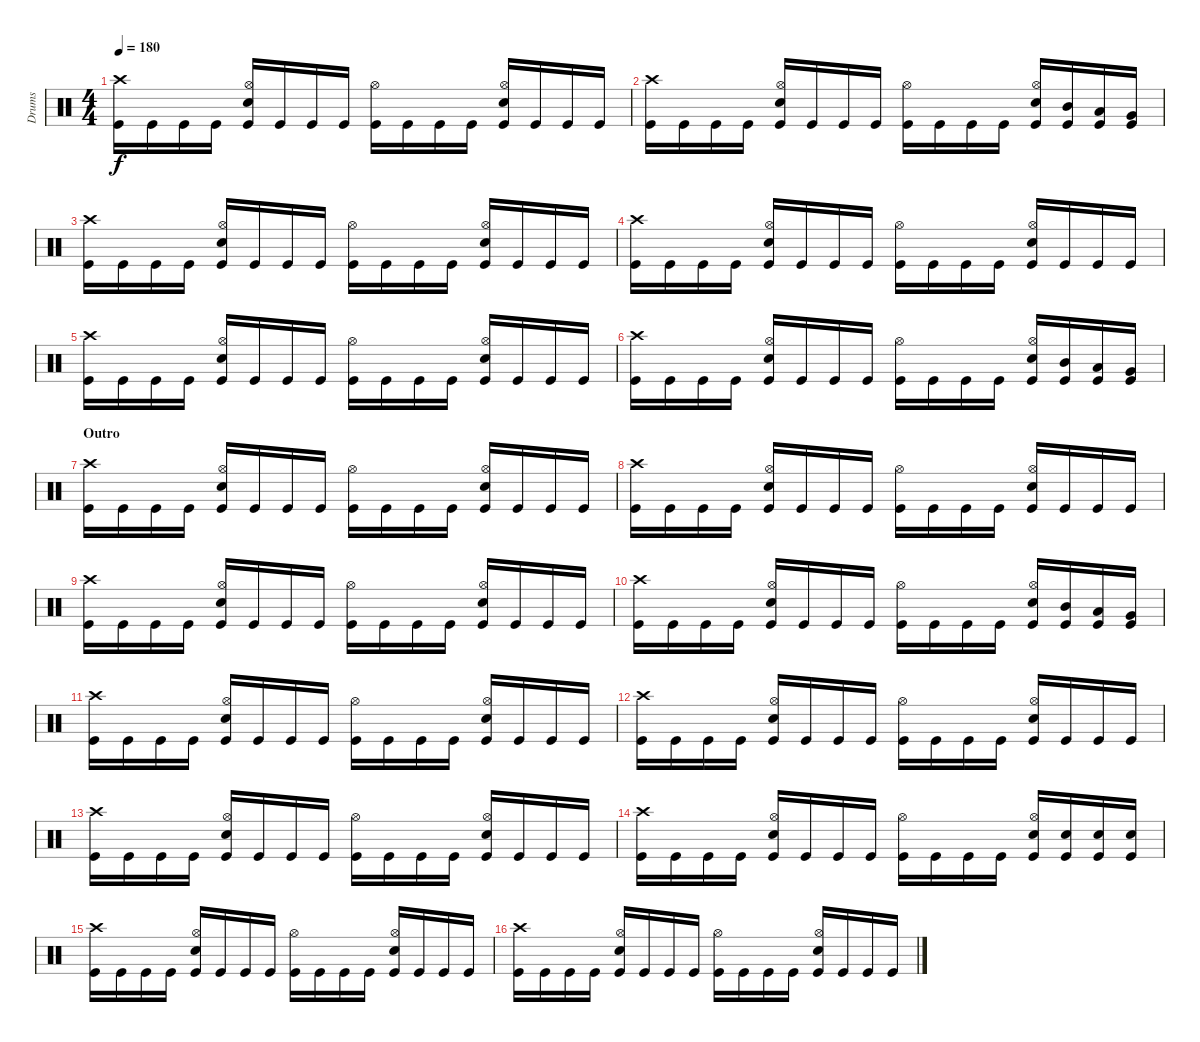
\track ("Drums" "Drums") {instrument percussion}
\staff {score}
\articulation defaults
\ts (4 4)
\tempo 180
\clef neutral
\ks c
("Crash high (hit)" "Kick (hit)").16{dy f} "Kick (hit)".16 "Kick (hit)".16 "Kick (hit)".16 ("Hi-Hat (open)" "Snare (hit) 2" "Kick (hit)").16 "Kick (hit)".16 "Kick (hit)".16 "Kick (hit)".16 ("Hi-Hat (open)" "Kick (hit)").16 "Kick (hit)".16 "Kick (hit)".16 "Kick (hit)".16 ("Hi-Hat (open)" "Snare (hit) 2" "Kick (hit)").16 "Kick (hit)".16 "Kick (hit)".16 "Kick (hit)".16 |
("Crash high (hit)" "Kick (hit)").16 "Kick (hit)".16 "Kick (hit)".16 "Kick (hit)".16 ("Hi-Hat (open)" "Snare (hit) 2" "Kick (hit)").16 "Kick (hit)".16 "Kick (hit)".16 "Kick (hit)".16 ("Hi-Hat (open)" "Kick (hit)").16 "Kick (hit)".16 "Kick (hit)".16 "Kick (hit)".16 ("Hi-Hat (open)" "Snare (hit) 2" "Kick (hit)").16 ("Mid Tom (hit)" "Kick (hit)").16 ("Low Tom (hit)" "Kick (hit)").16 ("Very Low Tom (hit)" "Kick (hit)").16 |
("Crash high (hit)" "Kick (hit)").16 "Kick (hit)".16 "Kick (hit)".16 "Kick (hit)".16 ("Hi-Hat (open)" "Snare (hit) 2" "Kick (hit)").16 "Kick (hit)".16 "Kick (hit)".16 "Kick (hit)".16 ("Hi-Hat (open)" "Kick (hit)").16 "Kick (hit)".16 "Kick (hit)".16 "Kick (hit)".16 ("Hi-Hat (open)" "Snare (hit) 2" "Kick (hit)").16 "Kick (hit)".16 "Kick (hit)".16 "Kick (hit)".16 |
("Crash high (hit)" "Kick (hit)").16 "Kick (hit)".16 "Kick (hit)".16 "Kick (hit)".16 ("Hi-Hat (open)" "Snare (hit) 2" "Kick (hit)").16 "Kick (hit)".16 "Kick (hit)".16 "Kick (hit)".16 ("Hi-Hat (open)" "Kick (hit)").16 "Kick (hit)".16 "Kick (hit)".16 "Kick (hit)".16 ("Hi-Hat (open)" "Snare (hit) 2" "Kick (hit)").16 "Kick (hit)".16 "Kick (hit)".16 "Kick (hit)".16 |
("Crash high (hit)" "Kick (hit)").16 "Kick (hit)".16 "Kick (hit)".16 "Kick (hit)".16 ("Hi-Hat (open)" "Snare (hit) 2" "Kick (hit)").16 "Kick (hit)".16 "Kick (hit)".16 "Kick (hit)".16 ("Hi-Hat (open)" "Kick (hit)").16 "Kick (hit)".16 "Kick (hit)".16 "Kick (hit)".16 ("Hi-Hat (open)" "Snare (hit) 2" "Kick (hit)").16 "Kick (hit)".16 "Kick (hit)".16 "Kick (hit)".16 |
("Crash high (hit)" "Kick (hit)").16 "Kick (hit)".16 "Kick (hit)".16 "Kick (hit)".16 ("Hi-Hat (open)" "Snare (hit) 2" "Kick (hit)").16 "Kick (hit)".16 "Kick (hit)".16 "Kick (hit)".16 ("Hi-Hat (open)" "Kick (hit)").16 "Kick (hit)".16 "Kick (hit)".16 "Kick (hit)".16 ("Hi-Hat (open)" "Snare (hit) 2" "Kick (hit)").16 ("Mid Tom (hit)" "Kick (hit)").16 ("Low Tom (hit)" "Kick (hit)").16 ("Very Low Tom (hit)" "Kick (hit)").16 |
\section ("" "Outro")
("Crash high (hit)" "Kick (hit)").16 "Kick (hit)".16 "Kick (hit)".16 "Kick (hit)".16 ("Hi-Hat (open)" "Snare (hit) 2" "Kick (hit)").16 "Kick (hit)".16 "Kick (hit)".16 "Kick (hit)".16 ("Hi-Hat (open)" "Kick (hit)").16 "Kick (hit)".16 "Kick (hit)".16 "Kick (hit)".16 ("Hi-Hat (open)" "Snare (hit) 2" "Kick (hit)").16 "Kick (hit)".16 "Kick (hit)".16 "Kick (hit)".16 |
("Crash high (hit)" "Kick (hit)").16 "Kick (hit)".16 "Kick (hit)".16 "Kick (hit)".16 ("Hi-Hat (open)" "Snare (hit) 2" "Kick (hit)").16 "Kick (hit)".16 "Kick (hit)".16 "Kick (hit)".16 ("Hi-Hat (open)" "Kick (hit)").16 "Kick (hit)".16 "Kick (hit)".16 "Kick (hit)".16 ("Hi-Hat (open)" "Snare (hit) 2" "Kick (hit)").16 "Kick (hit)".16 "Kick (hit)".16 "Kick (hit)".16 |
("Crash high (hit)" "Kick (hit)").16 "Kick (hit)".16 "Kick (hit)".16 "Kick (hit)".16 ("Hi-Hat (open)" "Snare (hit) 2" "Kick (hit)").16 "Kick (hit)".16 "Kick (hit)".16 "Kick (hit)".16 ("Hi-Hat (open)" "Kick (hit)").16 "Kick (hit)".16 "Kick (hit)".16 "Kick (hit)".16 ("Hi-Hat (open)" "Snare (hit) 2" "Kick (hit)").16 "Kick (hit)".16 "Kick (hit)".16 "Kick (hit)".16 |
("Crash high (hit)" "Kick (hit)").16 "Kick (hit)".16 "Kick (hit)".16 "Kick (hit)".16 ("Hi-Hat (open)" "Snare (hit) 2" "Kick (hit)").16 "Kick (hit)".16 "Kick (hit)".16 "Kick (hit)".16 ("Hi-Hat (open)" "Kick (hit)").16 "Kick (hit)".16 "Kick (hit)".16 "Kick (hit)".16 ("Hi-Hat (open)" "Snare (hit) 2" "Kick (hit)").16 ("Mid Tom (hit)" "Kick (hit)").16 ("Low Tom (hit)" "Kick (hit)").16 ("Very Low Tom (hit)" "Kick (hit)").16 |
("Crash high (hit)" "Kick (hit)").16 "Kick (hit)".16 "Kick (hit)".16 "Kick (hit)".16 ("Hi-Hat (open)" "Snare (hit) 2" "Kick (hit)").16 "Kick (hit)".16 "Kick (hit)".16 "Kick (hit)".16 ("Hi-Hat (open)" "Kick (hit)").16 "Kick (hit)".16 "Kick (hit)".16 "Kick (hit)".16 ("Hi-Hat (open)" "Snare (hit) 2" "Kick (hit)").16 "Kick (hit)".16 "Kick (hit)".16 "Kick (hit)".16 |
("Crash high (hit)" "Kick (hit)").16 "Kick (hit)".16 "Kick (hit)".16 "Kick (hit)".16 ("Hi-Hat (open)" "Snare (hit) 2" "Kick (hit)").16 "Kick (hit)".16 "Kick (hit)".16 "Kick (hit)".16 ("Hi-Hat (open)" "Kick (hit)").16 "Kick (hit)".16 "Kick (hit)".16 "Kick (hit)".16 ("Hi-Hat (open)" "Snare (hit) 2" "Kick (hit)").16 "Kick (hit)".16 "Kick (hit)".16 "Kick (hit)".16 |
("Crash high (hit)" "Kick (hit)").16 "Kick (hit)".16 "Kick (hit)".16 "Kick (hit)".16 ("Hi-Hat (open)" "Snare (hit) 2" "Kick (hit)").16 "Kick (hit)".16 "Kick (hit)".16 "Kick (hit)".16 ("Hi-Hat (open)" "Kick (hit)").16 "Kick (hit)".16 "Kick (hit)".16 "Kick (hit)".16 ("Hi-Hat (open)" "Snare (hit) 2" "Kick (hit)").16 "Kick (hit)".16 "Kick (hit)".16 "Kick (hit)".16 |
("Crash high (hit)" "Kick (hit)").16 "Kick (hit)".16 "Kick (hit)".16 "Kick (hit)".16 ("Hi-Hat (open)" "Snare (hit) 2" "Kick (hit)").16 "Kick (hit)".16 "Kick (hit)".16 "Kick (hit)".16 ("Hi-Hat (open)" "Kick (hit)").16 "Kick (hit)".16 "Kick (hit)".16 "Kick (hit)".16 ("Hi-Hat (open)" "Snare (hit) 2" "Kick (hit)").16 ("Snare (hit) 2" "Kick (hit)").16 ("Snare (hit) 2" "Kick (hit)").16 ("Snare (hit) 2" "Kick (hit)").16 |
("Crash high (hit)" "Kick (hit)").16 "Kick (hit)".16 "Kick (hit)".16 "Kick (hit)".16 ("Hi-Hat (open)" "Snare (hit) 2" "Kick (hit)").16 "Kick (hit)".16 "Kick (hit)".16 "Kick (hit)".16 ("Hi-Hat (open)" "Kick (hit)").16 "Kick (hit)".16 "Kick (hit)".16 "Kick (hit)".16 ("Hi-Hat (open)" "Snare (hit) 2" "Kick (hit)").16 "Kick (hit)".16 "Kick (hit)".16 "Kick (hit)".16 |
("Crash high (hit)" "Kick (hit)").16 "Kick (hit)".16 "Kick (hit)".16 "Kick (hit)".16 ("Hi-Hat (open)" "Snare (hit) 2" "Kick (hit)").16 "Kick (hit)".16 "Kick (hit)".16 "Kick (hit)".16 ("Hi-Hat (open)" "Kick (hit)").16 "Kick (hit)".16 "Kick (hit)".16 "Kick (hit)".16 ("Hi-Hat (open)" "Snare (hit) 2" "Kick (hit)").16 "Kick (hit)".16 "Kick (hit)".16 "Kick (hit)".16
